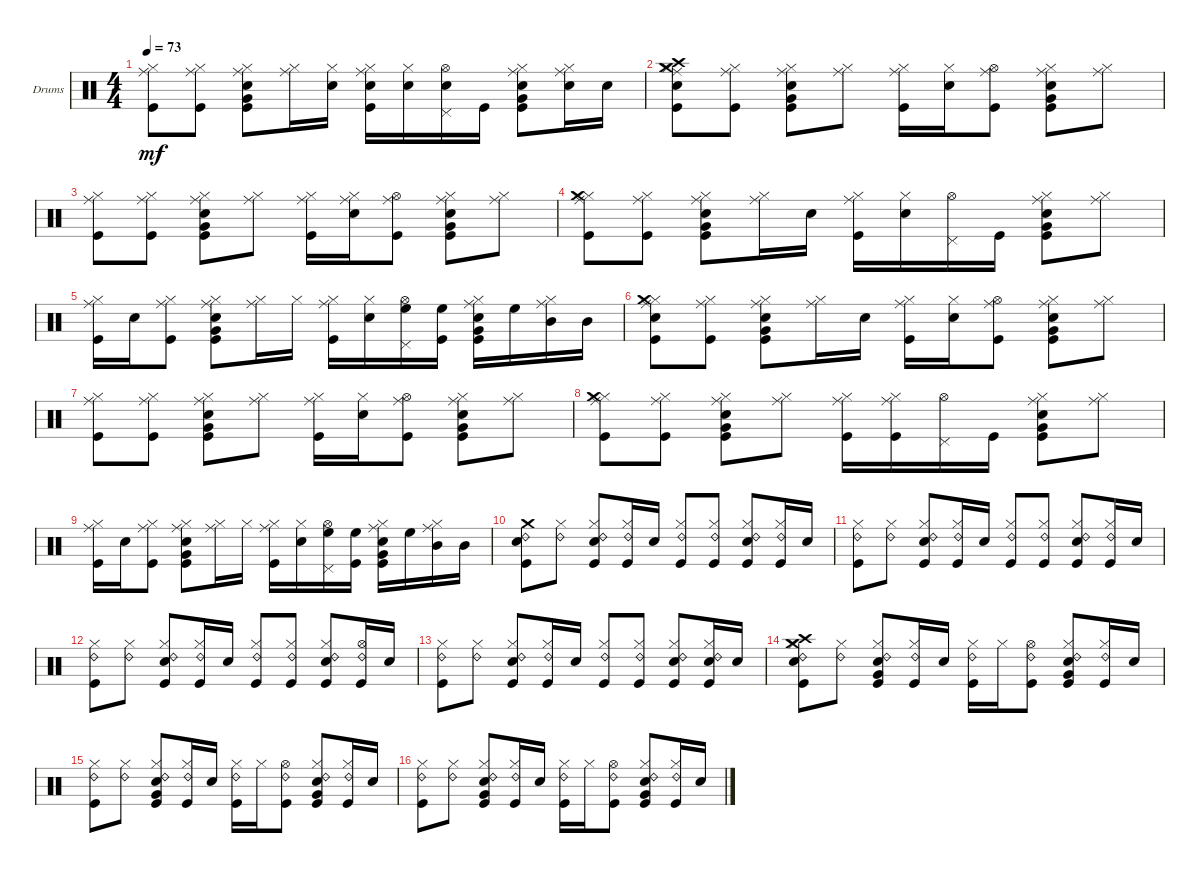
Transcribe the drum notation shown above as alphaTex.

\bracketExtendMode groupsimilarinstruments
\firstSystemTrackNameOrientation horizontal
\otherSystemsTrackNameOrientation horizontal
\track ("Drums" "Drums") {instrument percussion}
\staff {score}
\articulation defaults
\ts (4 4)
\tempo 73
\clef neutral
\ks c
("Kick (hit)" "Hi-Hat (closed)" "Ride (middle)").8{dy mf} ("Hi-Hat (closed)" "Kick (hit)" "Ride (middle)").8 ("Kick (hit)" "Snare (hit) 2" "Hi-Hat (closed)" "Very Low Tom (hit)" "Ride (middle)").8 ("Hi-Hat (closed)" "Ride (middle)").16 ("Snare (hit) 2" "Hi-Hat (closed)").16 ("Kick (hit)" "Snare (hit) 2" "Hi-Hat (closed)" "Ride (middle)").16 ("Snare (hit) 2" "Hi-Hat (closed)").16 ("Snare (hit) 2" "Hi-Hat (open)" "Pedal Hi-Hat (hit)").16 "Kick (hit)".16 ("Kick (hit)" "Snare (hit) 2" "Hi-Hat (closed)" "Very Low Tom (hit)" "Ride (middle)").8 ("Snare (hit) 2" "Hi-Hat (closed)" "Ride (middle)").16 "Snare (hit) 2".16 |
("Kick (hit)" "Snare (hit) 2" "Hi-Hat (closed)" "Crash medium (hit)" "Crash high (hit)" "Ride (middle)").8 ("Hi-Hat (closed)" "Kick (hit)" "Ride (middle)").8 ("Kick (hit)" "Snare (hit) 2" "Hi-Hat (closed)" "Very Low Tom (hit)" "Ride (middle)").8 ("Hi-Hat (closed)" "Ride (middle)").8 ("Kick (hit)" "Hi-Hat (closed)" "Ride (middle)").16 ("Hi-Hat (closed)" "Snare (hit) 2").16 ("Hi-Hat (open)" "Kick (hit)" "Ride (middle)").8 ("Kick (hit)" "Snare (hit) 2" "Hi-Hat (closed)" "Very Low Tom (hit)" "Ride (middle)").8 ("Hi-Hat (closed)" "Ride (middle)").8 |
("Kick (hit)" "Hi-Hat (closed)" "Ride (middle)").8 ("Hi-Hat (closed)" "Kick (hit)" "Ride (middle)").8 ("Kick (hit)" "Snare (hit) 2" "Hi-Hat (closed)" "Very Low Tom (hit)" "Ride (middle)").8 ("Hi-Hat (closed)" "Ride (middle)").8 ("Kick (hit)" "Hi-Hat (closed)" "Ride (middle)").16 ("Hi-Hat (closed)" "Snare (hit) 2" "Ride (middle)").16 ("Hi-Hat (open)" "Kick (hit)" "Ride (middle)").8 ("Kick (hit)" "Snare (hit) 2" "Hi-Hat (closed)" "Very Low Tom (hit)" "Ride (middle)").8 ("Hi-Hat (closed)" "Ride (middle)").8 |
("Kick (hit)" "Hi-Hat (closed)" "Ride (middle)" "Crash medium (hit)").8 ("Hi-Hat (closed)" "Kick (hit)" "Ride (middle)").8 ("Kick (hit)" "Snare (hit) 2" "Hi-Hat (closed)" "Very Low Tom (hit)" "Ride (middle)").8 ("Hi-Hat (closed)" "Ride (middle)").16 "Snare (hit) 2".16 ("Kick (hit)" "Hi-Hat (closed)" "Ride (middle)").16 ("Hi-Hat (closed)" "Snare (hit) 2").16 ("Hi-Hat (open)" "Pedal Hi-Hat (hit)").16 "Kick (hit)".16 ("Kick (hit)" "Snare (hit) 2" "Hi-Hat (closed)" "Very Low Tom (hit)" "Ride (middle)").8 ("Hi-Hat (closed)" "Ride (middle)").8 |
("Kick (hit)" "Hi-Hat (closed)" "Ride (middle)").16 "Snare (hit) 2".16 ("Hi-Hat (closed)" "Kick (hit)" "Ride (middle)").8 ("Kick (hit)" "Snare (hit) 2" "Hi-Hat (closed)" "Very Low Tom (hit)" "Ride (middle)").8 ("Hi-Hat (closed)" "Ride (middle)").16 "Hi-Hat (closed)".16 ("Kick (hit)" "Hi-Hat (closed)" "Ride (middle)").16 ("Hi-Hat (closed)" "Snare (hit) 2").16 ("Hi-Hat (open)" "High Floor Tom (hit)" "Pedal Hi-Hat (hit)").16 ("High Floor Tom (hit)" "Kick (hit)").16 ("Kick (hit)" "Hi-Hat (closed)" "Very Low Tom (hit)" "Snare (hit) 2" "Ride (middle)").16 "High Floor Tom (hit)".16 ("Hi-Hat (closed)" "Mid Tom (hit)" "Ride (middle)").16 "Mid Tom (hit)".16 |
("Kick (hit)" "Snare (hit) 2" "Hi-Hat (closed)" "Crash medium (hit)" "Ride (middle)").8 ("Hi-Hat (closed)" "Kick (hit)" "Ride (middle)").8 ("Kick (hit)" "Snare (hit) 2" "Hi-Hat (closed)" "Very Low Tom (hit)" "Ride (middle)").8 ("Hi-Hat (closed)" "Ride (middle)").16 "Snare (hit) 2".16 ("Kick (hit)" "Hi-Hat (closed)" "Ride (middle)").16 ("Hi-Hat (closed)" "Snare (hit) 2").16 ("Hi-Hat (open)" "Kick (hit)" "Ride (middle)").8 ("Kick (hit)" "Snare (hit) 2" "Hi-Hat (closed)" "Very Low Tom (hit)" "Ride (middle)").8 ("Hi-Hat (closed)" "Ride (middle)").8 |
("Kick (hit)" "Hi-Hat (closed)" "Ride (middle)").8 ("Hi-Hat (closed)" "Kick (hit)" "Ride (middle)").8 ("Kick (hit)" "Snare (hit) 2" "Hi-Hat (closed)" "Very Low Tom (hit)" "Ride (middle)").8 ("Hi-Hat (closed)" "Ride (middle)").8 ("Kick (hit)" "Hi-Hat (closed)" "Ride (middle)").16 ("Hi-Hat (closed)" "Snare (hit) 2").16 ("Hi-Hat (open)" "Kick (hit)" "Ride (middle)").8 ("Kick (hit)" "Snare (hit) 2" "Hi-Hat (closed)" "Very Low Tom (hit)" "Ride (middle)").8 ("Hi-Hat (closed)" "Ride (middle)").8 |
("Kick (hit)" "Hi-Hat (closed)" "Ride (middle)" "Crash medium (hit)").8 ("Hi-Hat (closed)" "Kick (hit)" "Ride (middle)").8 ("Kick (hit)" "Snare (hit) 2" "Hi-Hat (closed)" "Very Low Tom (hit)" "Ride (middle)").8 ("Hi-Hat (closed)" "Ride (middle)").8 ("Kick (hit)" "Hi-Hat (closed)" "Ride (middle)").16 ("Hi-Hat (closed)" "Kick (hit)" "Ride (middle)").16 ("Hi-Hat (open)" "Pedal Hi-Hat (hit)").16 "Kick (hit)".16 ("Kick (hit)" "Snare (hit) 2" "Hi-Hat (closed)" "Very Low Tom (hit)" "Ride (middle)").8 ("Hi-Hat (closed)" "Ride (middle)").8 |
("Kick (hit)" "Hi-Hat (closed)" "Ride (middle)").16 "Snare (hit) 2".16 ("Hi-Hat (closed)" "Kick (hit)" "Ride (middle)").8 ("Kick (hit)" "Snare (hit) 2" "Hi-Hat (closed)" "Very Low Tom (hit)" "Ride (middle)").8 ("Hi-Hat (closed)" "Ride (middle)").16 "Hi-Hat (closed)".16 ("Kick (hit)" "Hi-Hat (closed)" "Ride (middle)").16 ("Hi-Hat (closed)" "Snare (hit) 2").16 ("Hi-Hat (open)" "High Floor Tom (hit)" "Pedal Hi-Hat (hit)").16 ("High Floor Tom (hit)" "Kick (hit)").16 ("Kick (hit)" "Hi-Hat (closed)" "Very Low Tom (hit)" "Snare (hit) 2" "Ride (middle)").16 "High Floor Tom (hit)".16 ("Hi-Hat (closed)" "Mid Tom (hit)" "Ride (middle)").16 "Mid Tom (hit)".16 |
("Kick (hit)" "Snare (hit) 2" "Crash medium (hit)" "Ride (bell) 2").8 ("Hi-Hat (closed)" "Ride (bell) 2").8 ("Kick (hit)" "Snare (hit) 2" "Hi-Hat (closed)" "Ride (bell) 2").8 ("Hi-Hat (closed)" "Kick (hit)" "Ride (bell) 2").16 "Snare (hit) 2".16 ("Kick (hit)" "Hi-Hat (closed)" "Ride (bell) 2").8 ("Hi-Hat (closed)" "Kick (hit)" "Ride (bell) 2").8 ("Kick (hit)" "Snare (hit) 2" "Hi-Hat (closed)" "Ride (bell) 2").8 ("Hi-Hat (closed)" "Kick (hit)" "Ride (bell) 2").16 "Snare (hit) 2".16 |
("Kick (hit)" "Hi-Hat (closed)" "Ride (bell) 2").8 ("Hi-Hat (closed)" "Ride (bell) 2").8 ("Kick (hit)" "Snare (hit) 2" "Hi-Hat (closed)" "Ride (bell) 2").8 ("Hi-Hat (closed)" "Kick (hit)" "Ride (bell) 2").16 "Snare (hit) 2".16 ("Kick (hit)" "Hi-Hat (closed)" "Ride (bell) 2").8 ("Hi-Hat (closed)" "Kick (hit)" "Ride (bell) 2").8 ("Kick (hit)" "Snare (hit) 2" "Hi-Hat (closed)" "Ride (bell) 2").8 ("Hi-Hat (closed)" "Kick (hit)" "Ride (bell) 2").16 "Snare (hit) 2".16 |
("Kick (hit)" "Hi-Hat (closed)" "Ride (bell) 2").8 ("Hi-Hat (closed)" "Ride (bell) 2").8 ("Kick (hit)" "Snare (hit) 2" "Hi-Hat (closed)" "Ride (bell) 2").8 ("Hi-Hat (closed)" "Kick (hit)" "Ride (bell) 2").16 "Snare (hit) 2".16 ("Kick (hit)" "Hi-Hat (closed)" "Ride (bell) 2").8 ("Hi-Hat (closed)" "Kick (hit)" "Ride (bell) 2").8 ("Kick (hit)" "Snare (hit) 2" "Hi-Hat (closed)" "Ride (bell) 2").8 ("Hi-Hat (open)" "Kick (hit)" "Ride (bell) 2").16 "Snare (hit) 2".16 |
("Kick (hit)" "Hi-Hat (closed)" "Ride (bell) 2").8 ("Hi-Hat (closed)" "Ride (bell) 2").8 ("Kick (hit)" "Snare (hit) 2" "Hi-Hat (closed)" "Ride (bell) 2").8 ("Hi-Hat (closed)" "Kick (hit)" "Ride (bell) 2").16 "Snare (hit) 2".16 ("Kick (hit)" "Hi-Hat (closed)" "Ride (bell) 2").8 ("Hi-Hat (closed)" "Kick (hit)" "Ride (bell) 2").8 ("Kick (hit)" "Snare (hit) 2" "Hi-Hat (closed)" "Ride (bell) 2").8 ("Kick (hit)" "Snare (hit) 2" "Hi-Hat (closed)" "Ride (bell) 2").16 "Snare (hit) 2".16 |
("Kick (hit)" "Snare (hit) 2" "Hi-Hat (closed)" "Crash medium (hit)" "Crash high (hit)" "Ride (bell) 2").8 ("Hi-Hat (closed)" "Ride (bell) 2").8 ("Kick (hit)" "Snare (hit) 2" "Hi-Hat (closed)" "Very Low Tom (hit)" "Ride (bell) 2").8 ("Hi-Hat (closed)" "Kick (hit)" "Ride (bell) 2").16 "Snare (hit) 2".16 ("Kick (hit)" "Hi-Hat (closed)" "Ride (bell) 2").16 "Hi-Hat (closed)".16 ("Hi-Hat (open)" "Kick (hit)" "Ride (bell) 2").8 ("Kick (hit)" "Snare (hit) 2" "Hi-Hat (closed)" "Very Low Tom (hit)" "Ride (bell) 2").8 ("Hi-Hat (closed)" "Kick (hit)" "Ride (bell) 2").16 "Snare (hit) 2".16 |
("Kick (hit)" "Hi-Hat (closed)" "Ride (bell) 2").8 ("Hi-Hat (closed)" "Ride (bell) 2").8 ("Kick (hit)" "Snare (hit) 2" "Hi-Hat (closed)" "Very Low Tom (hit)" "Ride (bell) 2").8 ("Hi-Hat (closed)" "Kick (hit)" "Ride (bell) 2").16 "Snare (hit) 2".16 ("Kick (hit)" "Hi-Hat (closed)" "Ride (bell) 2").16 "Hi-Hat (closed)".16 ("Hi-Hat (open)" "Kick (hit)" "Ride (bell) 2").8 ("Kick (hit)" "Snare (hit) 2" "Hi-Hat (closed)" "Very Low Tom (hit)" "Ride (bell) 2").8 ("Hi-Hat (closed)" "Kick (hit)" "Ride (bell) 2").16 "Snare (hit) 2".16 |
("Kick (hit)" "Hi-Hat (closed)" "Ride (bell) 2").8 ("Hi-Hat (closed)" "Ride (bell) 2").8 ("Kick (hit)" "Snare (hit) 2" "Hi-Hat (closed)" "Very Low Tom (hit)" "Ride (bell) 2").8 ("Hi-Hat (closed)" "Kick (hit)" "Ride (bell) 2").16 "Snare (hit) 2".16 ("Kick (hit)" "Hi-Hat (closed)" "Ride (bell) 2").16 "Hi-Hat (closed)".16 ("Hi-Hat (open)" "Kick (hit)" "Ride (bell) 2").8 ("Kick (hit)" "Snare (hit) 2" "Hi-Hat (closed)" "Very Low Tom (hit)" "Ride (bell) 2").8 ("Hi-Hat (closed)" "Kick (hit)" "Ride (bell) 2").16 "Snare (hit) 2".16
